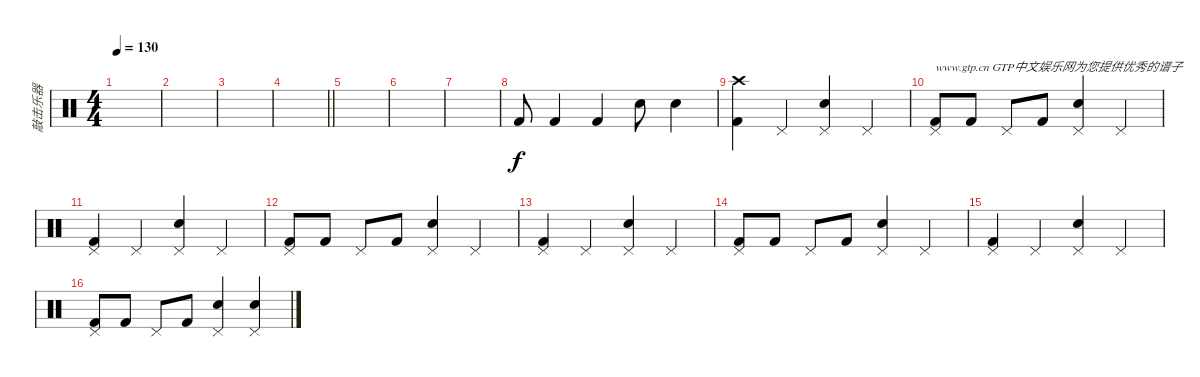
\track ("敲击乐器" "敲击乐器") {instrument percussion}
\staff {score}
\articulation defaults
\ts (4 4)
\tempo 130
\clef neutral
\ks c
|
|
|
\barLineRight lightlight
|
\section ("" "")
|
|
|
"Kick (hit) 2".8 "Kick (hit) 2".4 "Kick (hit) 2".4 "Electric Snare (hit)".8 "Electric Snare (hit)".4 |
("Crash high (hit)" "Kick (hit) 2").4 "Pedal Hi-Hat (hit)".4 ("Pedal Hi-Hat (hit)" "Electric Snare (hit)").4 "Pedal Hi-Hat (hit)".4 |
("Pedal Hi-Hat (hit)" "Kick (hit) 2").8{txt "www.gtp.cn GTP中文娱乐网为您提供优秀的谱子"} "Kick (hit) 2".8 "Pedal Hi-Hat (hit)".8 "Kick (hit) 2".8 ("Pedal Hi-Hat (hit)" "Electric Snare (hit)").4 "Pedal Hi-Hat (hit)".4 |
("Kick (hit) 2" "Pedal Hi-Hat (hit)").4 "Pedal Hi-Hat (hit)".4 ("Pedal Hi-Hat (hit)" "Electric Snare (hit)").4 "Pedal Hi-Hat (hit)".4 |
("Pedal Hi-Hat (hit)" "Kick (hit) 2").8 "Kick (hit) 2".8 "Pedal Hi-Hat (hit)".8 "Kick (hit) 2".8 ("Pedal Hi-Hat (hit)" "Electric Snare (hit)").4 "Pedal Hi-Hat (hit)".4 |
("Kick (hit) 2" "Pedal Hi-Hat (hit)").4 "Pedal Hi-Hat (hit)".4 ("Pedal Hi-Hat (hit)" "Electric Snare (hit)").4 "Pedal Hi-Hat (hit)".4 |
("Pedal Hi-Hat (hit)" "Kick (hit) 2").8 "Kick (hit) 2".8 "Pedal Hi-Hat (hit)".8 "Kick (hit) 2".8 ("Pedal Hi-Hat (hit)" "Electric Snare (hit)").4 "Pedal Hi-Hat (hit)".4 |
("Kick (hit) 2" "Pedal Hi-Hat (hit)").4 "Pedal Hi-Hat (hit)".4 ("Pedal Hi-Hat (hit)" "Electric Snare (hit)").4 "Pedal Hi-Hat (hit)".4 |
("Pedal Hi-Hat (hit)" "Kick (hit) 2").8 "Kick (hit) 2".8 "Pedal Hi-Hat (hit)".8 "Kick (hit) 2".8 ("Pedal Hi-Hat (hit)" "Electric Snare (hit)").4 ("Pedal Hi-Hat (hit)" "Electric Snare (hit)").4
